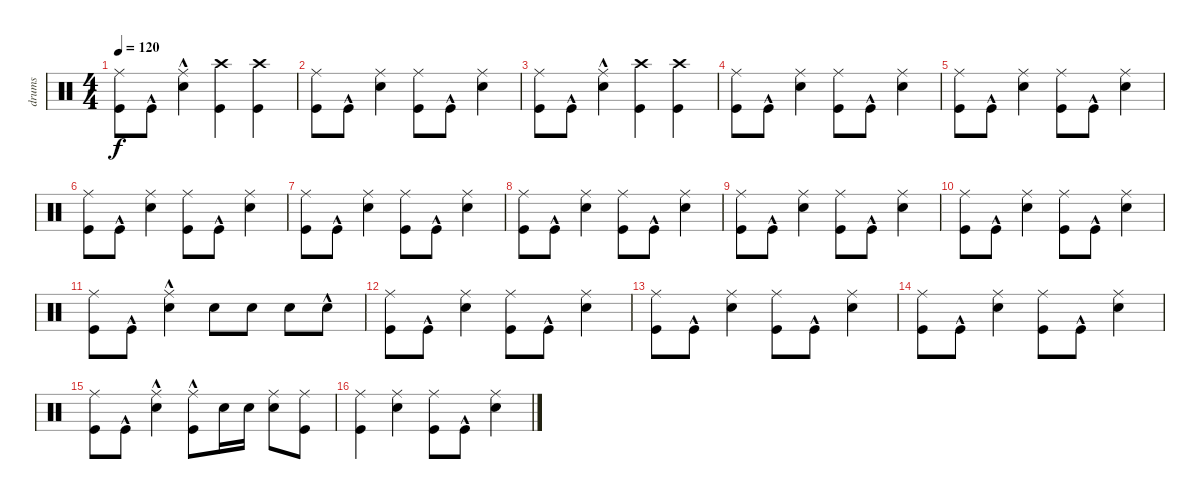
\track ("drums" "drums") {instrument percussion}
\staff {score}
\articulation defaults
\ts (4 4)
\tempo 120
\clef neutral
\ks c
("Kick (hit)" "Ride (middle)").8{dy f} "Kick (hit)"{hac}.8 ("Snare (hit) 2" "Ride (middle)"{hac}).4 ("Kick (hit)" "Crash high (hit)").4 ("Kick (hit)" "Crash high (hit)").4 |
("Kick (hit)" "Ride (middle)").8 "Kick (hit)"{hac}.8 ("Snare (hit) 2" "Ride (middle)").4 ("Kick (hit)" "Ride (middle)").8 "Kick (hit)"{hac}.8 ("Snare (hit) 2" "Ride (middle)").4 |
("Kick (hit)" "Ride (middle)").8 "Kick (hit)"{hac}.8 ("Snare (hit) 2" "Ride (middle)"{hac}).4 ("Kick (hit)" "Crash high (hit)").4 ("Kick (hit)" "Crash high (hit)").4 |
("Kick (hit)" "Ride (middle)").8 "Kick (hit)"{hac}.8 ("Snare (hit) 2" "Ride (middle)").4 ("Kick (hit)" "Ride (middle)").8 "Kick (hit)"{hac}.8 ("Snare (hit) 2" "Ride (middle)").4 |
("Kick (hit)" "Ride (middle)").8 "Kick (hit)"{hac}.8 ("Snare (hit) 2" "Ride (middle)").4 ("Kick (hit)" "Ride (middle)").8 "Kick (hit)"{hac}.8 ("Snare (hit) 2" "Ride (middle)").4 |
("Kick (hit)" "Ride (middle)").8 "Kick (hit)"{hac}.8 ("Snare (hit) 2" "Ride (middle)").4 ("Kick (hit)" "Ride (middle)").8 "Kick (hit)"{hac}.8 ("Snare (hit) 2" "Ride (middle)").4 |
("Kick (hit)" "Ride (middle)").8 "Kick (hit)"{hac}.8 ("Snare (hit) 2" "Ride (middle)").4 ("Kick (hit)" "Ride (middle)").8 "Kick (hit)"{hac}.8 ("Snare (hit) 2" "Ride (middle)").4 |
("Kick (hit)" "Ride (middle)").8 "Kick (hit)"{hac}.8 ("Snare (hit) 2" "Ride (middle)").4 ("Kick (hit)" "Ride (middle)").8 "Kick (hit)"{hac}.8 ("Snare (hit) 2" "Ride (middle)").4 |
("Kick (hit)" "Ride (middle)").8 "Kick (hit)"{hac}.8 ("Snare (hit) 2" "Ride (middle)").4 ("Kick (hit)" "Ride (middle)").8 "Kick (hit)"{hac}.8 ("Snare (hit) 2" "Ride (middle)").4 |
("Kick (hit)" "Ride (middle)").8 "Kick (hit)"{hac}.8 ("Snare (hit) 2" "Ride (middle)").4 ("Kick (hit)" "Ride (middle)").8 "Kick (hit)"{hac}.8 ("Snare (hit) 2" "Ride (middle)").4 |
("Kick (hit)" "Ride (middle)").8 "Kick (hit)"{hac}.8 ("Snare (hit) 2" "Ride (middle)"{hac}).4 "Snare (hit) 2".8 "Snare (hit) 2".8 "Snare (hit) 2".8 "Snare (hit) 2"{hac}.8 |
("Kick (hit)" "Ride (middle)").8 "Kick (hit)"{hac}.8 ("Snare (hit) 2" "Ride (middle)").4 ("Kick (hit)" "Ride (middle)").8 "Kick (hit)"{hac}.8 ("Snare (hit) 2" "Ride (middle)").4 |
("Kick (hit)" "Ride (middle)").8 "Kick (hit)"{hac}.8 ("Snare (hit) 2" "Ride (middle)").4 ("Kick (hit)" "Ride (middle)").8 "Kick (hit)"{hac}.8 ("Snare (hit) 2" "Ride (middle)").4 |
("Kick (hit)" "Ride (middle)").8 "Kick (hit)"{hac}.8 ("Snare (hit) 2" "Ride (middle)").4 ("Kick (hit)" "Ride (middle)").8 "Kick (hit)"{hac}.8 ("Snare (hit) 2" "Ride (middle)").4 |
("Kick (hit)" "Ride (middle)").8 "Kick (hit)"{hac}.8 ("Snare (hit) 2"{hac} "Ride (middle)").4 ("Kick (hit)"{hac} "Ride (middle)").8 "Snare (hit) 2".16 "Snare (hit) 2".16 ("Snare (hit) 2" "Ride (middle)").8 ("Kick (hit)" "Ride (middle)").8 |
("Kick (hit)" "Ride (middle)").4 ("Snare (hit) 2" "Ride (middle)").4 ("Kick (hit)" "Ride (middle)").8 "Kick (hit)"{hac}.8 ("Snare (hit) 2" "Ride (middle)").4
